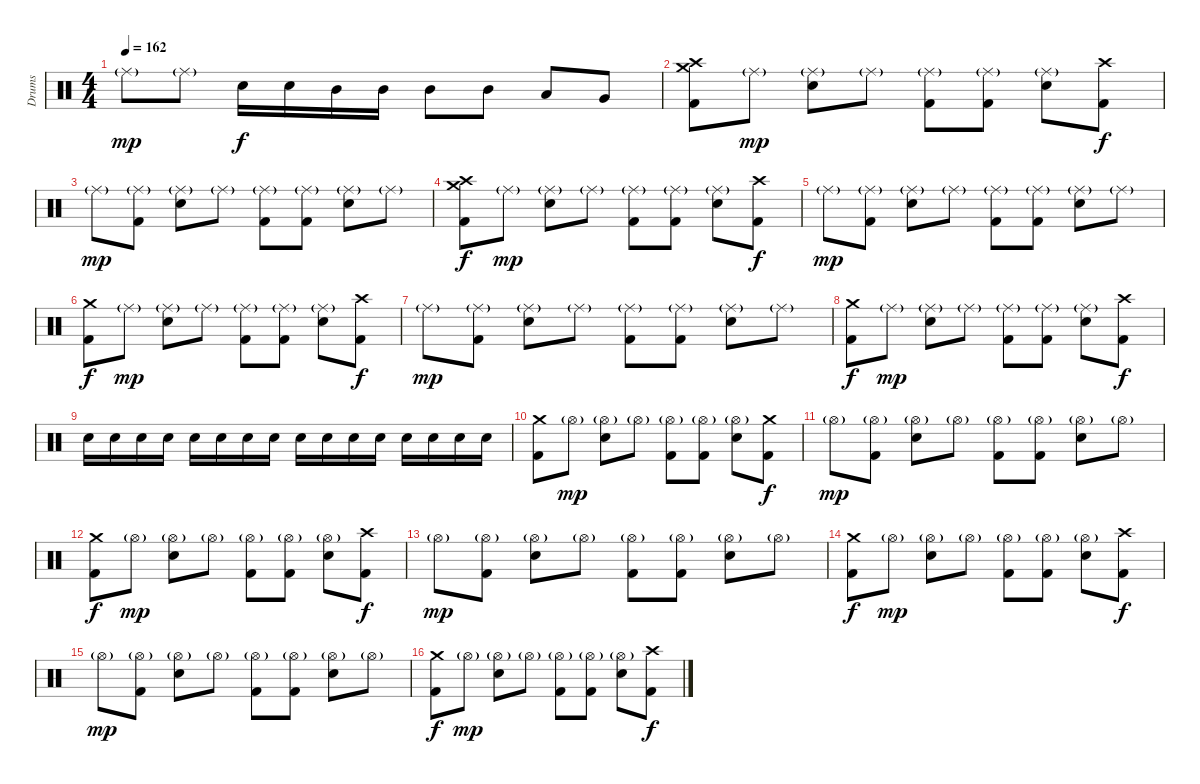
\track ("Drums" "Drums") {instrument percussion}
\staff {score}
\articulation defaults
\ts (4 4)
\tempo 162
\clef neutral
\ks c "Ride (middle)"{g}.8{dy mp} "Ride (middle)"{g}.8 "Snare (hit) 2".16{dy f} "Snare (hit) 2".16 "Mid Tom (hit)".16 "Mid Tom (hit)".16 "Mid Tom (hit)".8 "Mid Tom (hit)".8 "Low Tom (hit)".8 "Very Low Tom (hit)".8
|
("Crash medium (hit)" "Crash high (hit)" "Kick (hit) 2").8 "Ride (middle)"{g}.8{dy mp} ("Ride (middle)"{g} "Snare (hit) 2").8 "Ride (middle)"{g}.8 ("Ride (middle)"{g} "Kick (hit) 2").8 ("Ride (middle)"{g} "Kick (hit) 2").8 ("Ride (middle)"{g} "Snare (hit) 2").8 ("Crash high (hit)" "Kick (hit) 2").8{dy f} |
"Ride (middle)"{g}.8{dy mp} ("Ride (middle)"{g} "Kick (hit) 2").8 ("Ride (middle)"{g} "Snare (hit) 2").8 "Ride (middle)"{g}.8 ("Ride (middle)"{g} "Kick (hit) 2").8 ("Ride (middle)"{g} "Kick (hit) 2").8 ("Ride (middle)"{g} "Snare (hit) 2").8 "Ride (middle)"{g}.8 |
("Crash medium (hit)" "Crash high (hit)" "Kick (hit) 2").8{dy f} "Ride (middle)"{g}.8{dy mp} ("Ride (middle)"{g} "Snare (hit) 2").8 "Ride (middle)"{g}.8 ("Ride (middle)"{g} "Kick (hit) 2").8 ("Ride (middle)"{g} "Kick (hit) 2").8 ("Ride (middle)"{g} "Snare (hit) 2").8 ("Crash high (hit)" "Kick (hit) 2").8{dy f} |
"Ride (middle)"{g}.8{dy mp} ("Ride (middle)"{g} "Kick (hit) 2").8 ("Ride (middle)"{g} "Snare (hit) 2").8 "Ride (middle)"{g}.8 ("Ride (middle)"{g} "Kick (hit) 2").8 ("Ride (middle)"{g} "Kick (hit) 2").8 ("Ride (middle)"{g} "Snare (hit) 2").8 "Ride (middle)"{g}.8 |
("Crash medium (hit)" "Kick (hit) 2").8{dy f} "Ride (middle)"{g}.8{dy mp} ("Ride (middle)"{g} "Snare (hit) 2").8 "Ride (middle)"{g}.8 ("Ride (middle)"{g} "Kick (hit) 2").8 ("Ride (middle)"{g} "Kick (hit) 2").8 ("Ride (middle)"{g} "Snare (hit) 2").8 ("Crash high (hit)" "Kick (hit) 2").8{dy f} |
"Ride (middle)"{g}.8{dy mp} ("Ride (middle)"{g} "Kick (hit) 2").8 ("Ride (middle)"{g} "Snare (hit) 2").8 "Ride (middle)"{g}.8 ("Ride (middle)"{g} "Kick (hit) 2").8 ("Ride (middle)"{g} "Kick (hit) 2").8 ("Ride (middle)"{g} "Snare (hit) 2").8 "Ride (middle)"{g}.8 |
("Crash medium (hit)" "Kick (hit) 2").8{dy f} "Ride (middle)"{g}.8{dy mp} ("Ride (middle)"{g} "Snare (hit) 2").8 "Ride (middle)"{g}.8 ("Ride (middle)"{g} "Kick (hit) 2").8 ("Ride (middle)"{g} "Kick (hit) 2").8 ("Ride (middle)"{g} "Snare (hit) 2").8 ("Crash high (hit)" "Kick (hit) 2").8{dy f} |
"Snare (hit) 2".16 "Snare (hit) 2".16 "Snare (hit) 2".16 "Snare (hit) 2".16 "Snare (hit) 2".16 "Snare (hit) 2".16 "Snare (hit) 2".16 "Snare (hit) 2".16 "Snare (hit) 2".16 "Snare (hit) 2".16 "Snare (hit) 2".16 "Snare (hit) 2".16 "Snare (hit) 2".16 "Snare (hit) 2".16 "Snare (hit) 2".16 "Snare (hit) 2".16 |
("Crash medium (hit)" "Kick (hit) 2").8 "Hi-Hat (open)"{g}.8{dy mp} ("Hi-Hat (open)"{g} "Snare (hit) 2").8 "Hi-Hat (open)"{g}.8 ("Hi-Hat (open)"{g} "Kick (hit) 2").8 ("Hi-Hat (open)"{g} "Kick (hit) 2").8 ("Hi-Hat (open)"{g} "Snare (hit) 2").8 ("Crash medium (hit)" "Kick (hit) 2").8{dy f} |
"Hi-Hat (open)"{g}.8{dy mp} ("Hi-Hat (open)"{g} "Kick (hit) 2").8 ("Hi-Hat (open)"{g} "Snare (hit) 2").8 "Hi-Hat (open)"{g}.8 ("Hi-Hat (open)"{g} "Kick (hit) 2").8 ("Hi-Hat (open)"{g} "Kick (hit) 2").8 ("Hi-Hat (open)"{g} "Snare (hit) 2").8 "Hi-Hat (open)"{g}.8 |
("Crash medium (hit)" "Kick (hit) 2").8{dy f} "Hi-Hat (open)"{g}.8{dy mp} ("Hi-Hat (open)"{g} "Snare (hit) 2").8 "Hi-Hat (open)"{g}.8 ("Hi-Hat (open)"{g} "Kick (hit) 2").8 ("Hi-Hat (open)"{g} "Kick (hit) 2").8 ("Hi-Hat (open)"{g} "Snare (hit) 2").8 ("Crash high (hit)" "Kick (hit) 2").8{dy f} |
"Hi-Hat (open)"{g}.8{dy mp} ("Hi-Hat (open)"{g} "Kick (hit) 2").8 ("Hi-Hat (open)"{g} "Snare (hit) 2").8 "Hi-Hat (open)"{g}.8 ("Hi-Hat (open)"{g} "Kick (hit) 2").8 ("Hi-Hat (open)"{g} "Kick (hit) 2").8 ("Hi-Hat (open)"{g} "Snare (hit) 2").8 "Hi-Hat (open)"{g}.8 |
("Crash medium (hit)" "Kick (hit) 2").8{dy f} "Hi-Hat (open)"{g}.8{dy mp} ("Hi-Hat (open)"{g} "Snare (hit) 2").8 "Hi-Hat (open)"{g}.8 ("Hi-Hat (open)"{g} "Kick (hit) 2").8 ("Hi-Hat (open)"{g} "Kick (hit) 2").8 ("Hi-Hat (open)"{g} "Snare (hit) 2").8 ("Crash high (hit)" "Kick (hit) 2").8{dy f} |
"Hi-Hat (open)"{g}.8{dy mp} ("Hi-Hat (open)"{g} "Kick (hit) 2").8 ("Hi-Hat (open)"{g} "Snare (hit) 2").8 "Hi-Hat (open)"{g}.8 ("Hi-Hat (open)"{g} "Kick (hit) 2").8 ("Hi-Hat (open)"{g} "Kick (hit) 2").8 ("Hi-Hat (open)"{g} "Snare (hit) 2").8 "Hi-Hat (open)"{g}.8 |
("Crash medium (hit)" "Kick (hit) 2").8{dy f} "Hi-Hat (open)"{g}.8{dy mp} ("Hi-Hat (open)"{g} "Snare (hit) 2").8 "Hi-Hat (open)"{g}.8 ("Hi-Hat (open)"{g} "Kick (hit) 2").8 ("Hi-Hat (open)"{g} "Kick (hit) 2").8 ("Hi-Hat (open)"{g} "Snare (hit) 2").8 ("Crash high (hit)" "Kick (hit) 2").8{dy f}
